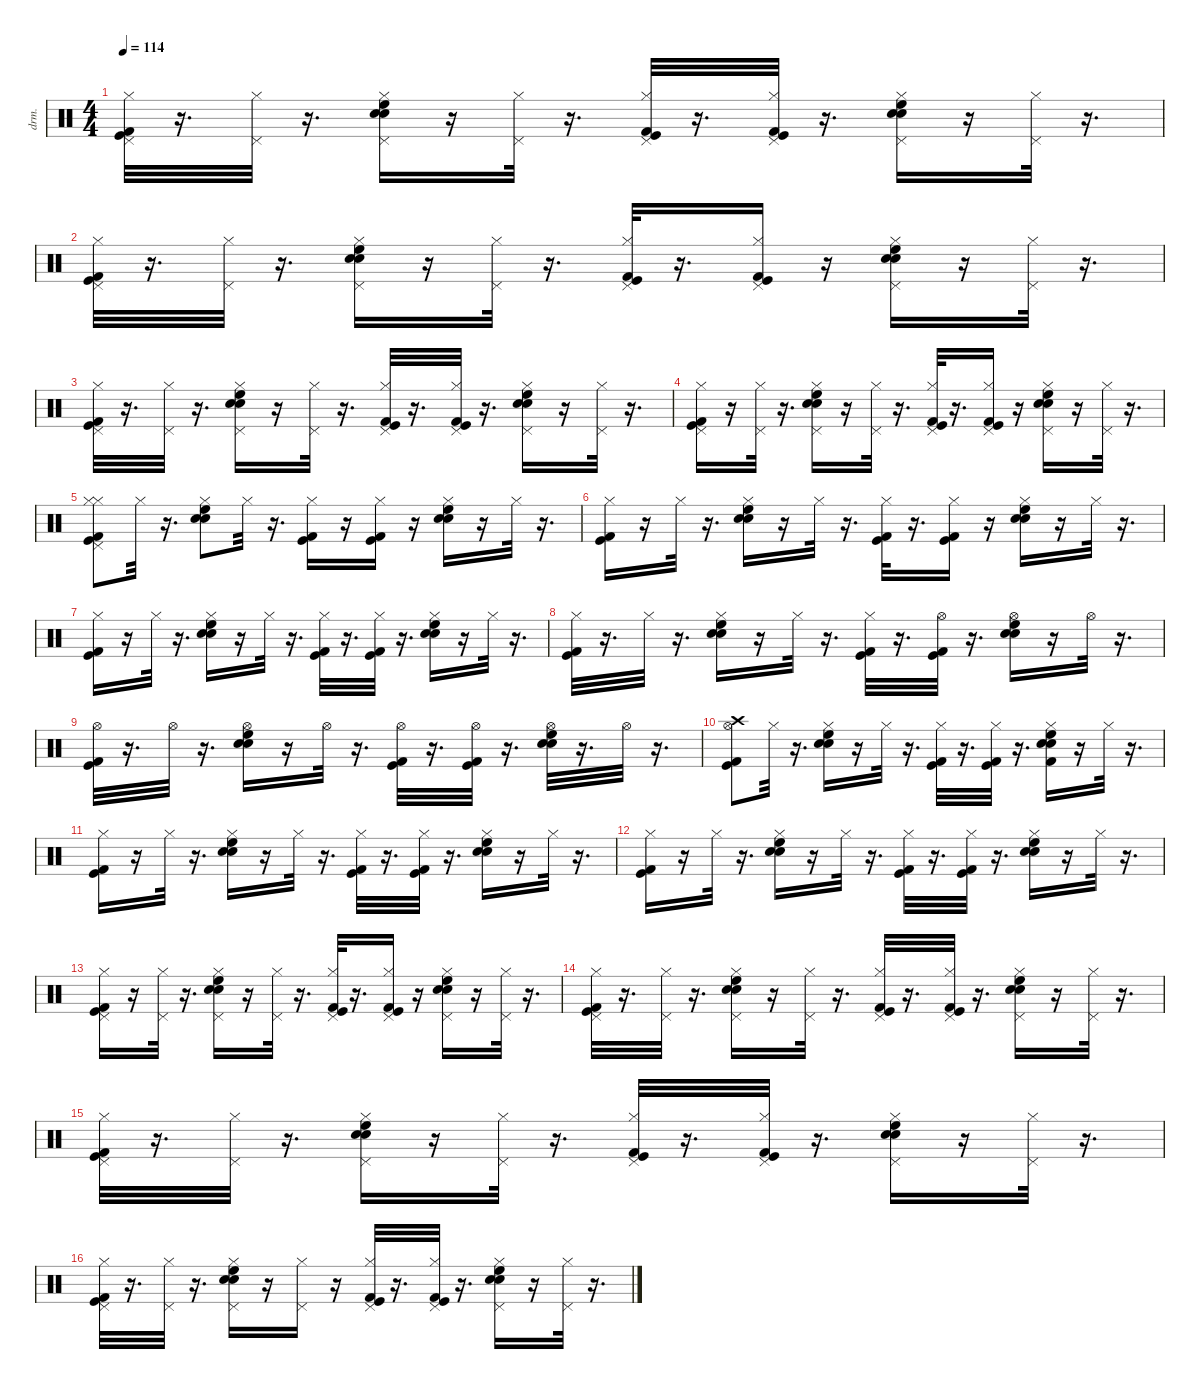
\defaultSystemsLayout 4
\hideDynamics
\bracketExtendMode nobrackets
\otherSystemsTrackNameOrientation horizontal
\track ("Drums" "drm.") {instrument percussion}
\staff {score}
\articulation defaults
\ts (4 4)
\tempo 114
\clef neutral
\ks c
("Kick (hit)" "Kick (hit) 2" "Hi-Hat (closed)" "Pedal Hi-Hat (hit)").32{dy fff} r.16{d} ("Hi-Hat (closed)" "Pedal Hi-Hat (hit)").32{dy ff} r.16{d} ("Snare (hit) 2" "High Floor Tom (hit)" "Hi-Hat (closed)" "Pedal Hi-Hat (hit)" "Snare (hit) 2").16{dy fff} r.16 ("Pedal Hi-Hat (hit)" "Hi-Hat (closed)").32{dy f} r.16{d} ("Kick (hit)" "Pedal Hi-Hat (hit)" "Kick (hit) 2" "Hi-Hat (closed)").32{dy fff} r.16{d} ("Kick (hit) 2" "Hi-Hat (closed)" "Pedal Hi-Hat (hit)" "Kick (hit)").32 r.16{d} ("Snare (hit) 2" "Snare (hit) 2" "Hi-Hat (closed)" "Pedal Hi-Hat (hit)" "High Floor Tom (hit)").16 r.16 ("Hi-Hat (closed)" "Pedal Hi-Hat (hit)").32{dy f} r.16{d} |
("Hi-Hat (closed)" "Pedal Hi-Hat (hit)" "Kick (hit)" "Kick (hit) 2").32{dy ff} r.16{d} ("Hi-Hat (closed)" "Pedal Hi-Hat (hit)").32{dy f} r.16{d} ("Snare (hit) 2" "Hi-Hat (closed)" "Pedal Hi-Hat (hit)" "Snare (hit) 2" "High Floor Tom (hit)").16{dy fff} r.16 ("Pedal Hi-Hat (hit)" "Hi-Hat (closed)").32{dy f} r.16{d} ("Kick (hit) 2" "Pedal Hi-Hat (hit)" "Hi-Hat (closed)" "Kick (hit)").32{dy fff} r.16{d} ("Kick (hit) 2" "Pedal Hi-Hat (hit)" "Hi-Hat (closed)" "Kick (hit)").16 r.16 ("Snare (hit) 2" "High Floor Tom (hit)" "Pedal Hi-Hat (hit)" "Hi-Hat (closed)" "Snare (hit) 2").16 r.16 ("Pedal Hi-Hat (hit)" "Hi-Hat (closed)").32{dy ff} r.16{d} |
("Kick (hit) 2" "Pedal Hi-Hat (hit)" "Hi-Hat (closed)" "Kick (hit)").32{dy fff} r.16{d} ("Hi-Hat (closed)" "Pedal Hi-Hat (hit)").32{dy f} r.16{d} ("Snare (hit) 2" "Snare (hit) 2" "High Floor Tom (hit)" "Pedal Hi-Hat (hit)" "Hi-Hat (closed)").16{dy fff} r.16 ("Pedal Hi-Hat (hit)" "Hi-Hat (closed)").32{dy ff} r.16{d} ("Pedal Hi-Hat (hit)" "Hi-Hat (closed)" "Kick (hit) 2" "Kick (hit)").32 r.16{d} ("Kick (hit) 2" "Hi-Hat (closed)" "Pedal Hi-Hat (hit)" "Kick (hit)").32{dy fff} r.16{d} ("Snare (hit) 2" "High Floor Tom (hit)" "Hi-Hat (closed)" "Pedal Hi-Hat (hit)" "Snare (hit) 2").16 r.16 ("Pedal Hi-Hat (hit)" "Hi-Hat (closed)").32{dy ff} r.16{d} |
("Kick (hit) 2" "Kick (hit)" "Hi-Hat (closed)" "Pedal Hi-Hat (hit)").16{dy fff} r.16 ("Pedal Hi-Hat (hit)" "Hi-Hat (closed)").32{dy ff} r.16{d} ("Snare (hit) 2" "Hi-Hat (closed)" "Pedal Hi-Hat (hit)" "Snare (hit) 2" "High Floor Tom (hit)").16{dy fff} r.16 ("Pedal Hi-Hat (hit)" "Hi-Hat (closed)").32{dy ff} r.16{d} ("Pedal Hi-Hat (hit)" "Hi-Hat (closed)" "Kick (hit) 2" "Kick (hit)").32 r.16{d} ("Pedal Hi-Hat (hit)" "Kick (hit) 2" "Hi-Hat (closed)" "Kick (hit)").16 r.16 ("Snare (hit) 2" "Hi-Hat (closed)" "Snare (hit) 2" "Pedal Hi-Hat (hit)" "High Floor Tom (hit)").16{dy fff} r.16 ("Pedal Hi-Hat (hit)" "Hi-Hat (closed)").32{dy ff} r.16{d} |
("Hi-Hat (closed)" "Kick (hit)" "Kick (hit) 2" "Pedal Hi-Hat (hit)" "Hi-Hat (closed)").8 "Hi-Hat (closed)".32 r.16{d} ("Snare (hit) 2" "High Floor Tom (hit)" "Snare (hit) 2" "Hi-Hat (closed)").8{dy fff} "Hi-Hat (closed)".32{dy ff} r.16{d} ("Kick (hit) 2" "Kick (hit)" "Hi-Hat (closed)").16{dy fff} r.16 ("Kick (hit)" "Kick (hit) 2" "Hi-Hat (closed)").16 r.16 ("Snare (hit) 2" "Hi-Hat (closed)" "Snare (hit) 2" "High Floor Tom (hit)").16 r.16 "Hi-Hat (closed)".32{dy ff} r.16{d} |
("Kick (hit)" "Kick (hit) 2" "Hi-Hat (closed)").16{dy fff} r.16 "Hi-Hat (closed)".32{dy ff} r.16{d} ("Snare (hit) 2" "Hi-Hat (closed)" "High Floor Tom (hit)" "Snare (hit) 2").16{dy fff} r.16 "Hi-Hat (closed)".32{dy ff} r.16{d} ("Hi-Hat (closed)" "Kick (hit) 2" "Kick (hit)").32 r.16{d} ("Hi-Hat (closed)" "Kick (hit) 2" "Kick (hit)").16 r.16 ("High Floor Tom (hit)" "Snare (hit) 2" "Snare (hit) 2" "Hi-Hat (closed)").16{dy fff} r.16 "Hi-Hat (closed)".32{dy ff} r.16{d} |
("Kick (hit) 2" "Kick (hit)" "Hi-Hat (closed)").16{dy fff} r.16 "Hi-Hat (closed)".32{dy ff} r.16{d} ("Snare (hit) 2" "High Floor Tom (hit)" "Hi-Hat (closed)" "Snare (hit) 2").16{dy fff} r.16 "Hi-Hat (closed)".32{dy ff} r.16{d} ("Kick (hit) 2" "Hi-Hat (closed)" "Kick (hit)").32{dy fff} r.16{d} ("Kick (hit) 2" "Hi-Hat (closed)" "Kick (hit)").32 r.16{d} ("High Floor Tom (hit)" "Snare (hit) 2" "Snare (hit) 2" "Hi-Hat (closed)").16 r.16 "Hi-Hat (closed)".32{dy ff} r.16{d} |
("Kick (hit)" "Kick (hit) 2" "Hi-Hat (closed)").32{dy fff} r.16{d} "Hi-Hat (closed)".32 r.16{d} ("Hi-Hat (closed)" "Snare (hit) 2" "Snare (hit) 2" "High Floor Tom (hit)").16{dy ff} r.16 "Hi-Hat (closed)".32{dy fff} r.16{d} ("Hi-Hat (closed)" "Kick (hit) 2" "Kick (hit)").32{dy ff} r.16{d} ("Hi-Hat (open)" "Kick (hit)" "Kick (hit) 2").32{dy f} r.16{d} ("High Floor Tom (hit)" "Hi-Hat (open)" "Snare (hit) 2" "Snare (hit) 2").16{dy fff} r.16 "Hi-Hat (open)".32{dy ff} r.16{d} |
("Kick (hit)" "Hi-Hat (open)" "Kick (hit) 2").32{dy fff} r.16{d} "Hi-Hat (open)".32{dy f} r.16{d} ("Snare (hit) 2" "High Floor Tom (hit)" "Snare (hit) 2" "Hi-Hat (open)").16{dy fff} r.16 "Hi-Hat (open)".32{dy ff} r.16{d} ("Kick (hit) 2" "Hi-Hat (open)" "Kick (hit)").32{dy fff} r.16{d} ("Hi-Hat (open)" "Kick (hit) 2" "Kick (hit)").32{dy ff} r.16{d} ("High Floor Tom (hit)" "Snare (hit) 2" "Snare (hit) 2" "Hi-Hat (open)").32{dy fff} r.16{d} "Hi-Hat (open)".32{dy ff} r.16{d} |
("Kick (hit) 2" "Kick (hit)" "Crash high (hit)" "Hi-Hat (open)").8{dy fff} "Hi-Hat (closed)".32{dy ff} r.16{d} ("Snare (hit) 2" "Hi-Hat (closed)" "Snare (hit) 2" "High Floor Tom (hit)").16{dy fff} r.16 "Hi-Hat (closed)".32{dy ff} r.16{d} ("Kick (hit) 2" "Hi-Hat (closed)" "Kick (hit)").32{dy fff} r.16{d} ("Kick (hit) 2" "Hi-Hat (closed)" "Kick (hit)").32 r.16{d} ("Kick (hit) 2" "Snare (hit) 2" "Snare (hit) 2" "High Floor Tom (hit)" "Hi-Hat (closed)").16{dy f} r.16 "Hi-Hat (closed)".32{dy ff} r.16{d} |
("Kick (hit)" "Kick (hit) 2" "Hi-Hat (closed)").16{dy fff} r.16 "Hi-Hat (closed)".32{dy ff} r.16{d} ("Snare (hit) 2" "High Floor Tom (hit)" "Hi-Hat (closed)" "Snare (hit) 2").16{dy fff} r.16 "Hi-Hat (closed)".32{dy ff} r.16{d} ("Kick (hit) 2" "Kick (hit)" "Hi-Hat (closed)").32{dy fff} r.16{d} ("Kick (hit) 2" "Kick (hit)" "Hi-Hat (closed)").32 r.16{d} ("Snare (hit) 2" "Snare (hit) 2" "High Floor Tom (hit)" "Hi-Hat (closed)").16 r.16 "Hi-Hat (closed)".32{dy ff} r.16{d} |
("Hi-Hat (closed)" "Kick (hit)" "Kick (hit) 2").16 r.16 "Hi-Hat (closed)".32 r.16{d} ("Snare (hit) 2" "Snare (hit) 2" "Hi-Hat (closed)" "High Floor Tom (hit)").16{dy fff} r.16 "Hi-Hat (closed)".32{dy ff} r.16{d} ("Kick (hit) 2" "Hi-Hat (closed)" "Kick (hit)").32{dy fff} r.16{d} ("Kick (hit) 2" "Hi-Hat (closed)" "Kick (hit)").32 r.16{d} ("High Floor Tom (hit)" "Snare (hit) 2" "Snare (hit) 2" "Hi-Hat (closed)").16 r.16 "Hi-Hat (closed)".32{dy ff} r.16{d} |
("Kick (hit)" "Kick (hit) 2" "Pedal Hi-Hat (hit)" "Hi-Hat (closed)").16{dy fff} r.16 ("Pedal Hi-Hat (hit)" "Hi-Hat (closed)").32{dy ff} r.16{d} ("Snare (hit) 2" "Pedal Hi-Hat (hit)" "Hi-Hat (closed)" "High Floor Tom (hit)" "Snare (hit) 2").16{dy fff} r.16 ("Pedal Hi-Hat (hit)" "Hi-Hat (closed)").32{dy ff} r.16{d} ("Kick (hit)" "Kick (hit) 2" "Pedal Hi-Hat (hit)" "Hi-Hat (closed)").32{dy fff} r.16{d} ("Kick (hit) 2" "Kick (hit)" "Pedal Hi-Hat (hit)" "Hi-Hat (closed)").16 r.16 ("Snare (hit) 2" "Snare (hit) 2" "High Floor Tom (hit)" "Pedal Hi-Hat (hit)" "Hi-Hat (closed)").16 r.16 ("Pedal Hi-Hat (hit)" "Hi-Hat (closed)").32{dy ff} r.16{d} |
("Kick (hit)" "Pedal Hi-Hat (hit)" "Hi-Hat (closed)" "Kick (hit) 2").32{dy fff} r.16{d} ("Pedal Hi-Hat (hit)" "Hi-Hat (closed)").32{dy f} r.16{d} ("High Floor Tom (hit)" "Snare (hit) 2" "Pedal Hi-Hat (hit)" "Snare (hit) 2" "Hi-Hat (closed)").16{dy fff} r.16 ("Pedal Hi-Hat (hit)" "Hi-Hat (closed)").32{dy f} r.16{d} ("Kick (hit) 2" "Kick (hit)" "Pedal Hi-Hat (hit)" "Hi-Hat (closed)").32{dy fff} r.16{d} ("Kick (hit) 2" "Kick (hit)" "Pedal Hi-Hat (hit)" "Hi-Hat (closed)").32 r.16{d} ("Snare (hit) 2" "High Floor Tom (hit)" "Snare (hit) 2" "Pedal Hi-Hat (hit)" "Hi-Hat (closed)").16 r.16 ("Pedal Hi-Hat (hit)" "Hi-Hat (closed)").32{dy ff} r.16{d} |
("Kick (hit) 2" "Kick (hit)" "Pedal Hi-Hat (hit)" "Hi-Hat (closed)").32{dy fff} r.16{d} ("Pedal Hi-Hat (hit)" "Hi-Hat (closed)").32{dy ff} r.16{d} ("Snare (hit) 2" "Snare (hit) 2" "Pedal Hi-Hat (hit)" "Hi-Hat (closed)" "High Floor Tom (hit)").16{dy fff} r.16 ("Pedal Hi-Hat (hit)" "Hi-Hat (closed)").32{dy f} r.16{d} ("Kick (hit) 2" "Pedal Hi-Hat (hit)" "Hi-Hat (closed)" "Kick (hit)").32{dy fff} r.16{d} ("Pedal Hi-Hat (hit)" "Hi-Hat (closed)" "Kick (hit) 2" "Kick (hit)").32{dy ff} r.16{d} ("Snare (hit) 2" "High Floor Tom (hit)" "Snare (hit) 2" "Pedal Hi-Hat (hit)" "Hi-Hat (closed)").16{dy fff} r.16 ("Pedal Hi-Hat (hit)" "Hi-Hat (closed)").32{dy f} r.16{d} |
("Kick (hit) 2" "Kick (hit)" "Pedal Hi-Hat (hit)" "Hi-Hat (closed)").32{dy fff} r.16{d} ("Pedal Hi-Hat (hit)" "Hi-Hat (closed)").32{dy f} r.16{d} ("Snare (hit) 2" "Snare (hit) 2" "Pedal Hi-Hat (hit)" "High Floor Tom (hit)" "Hi-Hat (closed)").16{dy fff} r.16 ("Pedal Hi-Hat (hit)" "Hi-Hat (closed)").16{dy f} r.16 ("Kick (hit) 2" "Pedal Hi-Hat (hit)" "Hi-Hat (closed)" "Kick (hit)").32{dy fff} r.16{d} ("Kick (hit) 2" "Pedal Hi-Hat (hit)" "Hi-Hat (closed)" "Kick (hit)").32 r.16{d} ("Snare (hit) 2" "Snare (hit) 2" "Pedal Hi-Hat (hit)" "Hi-Hat (closed)" "High Floor Tom (hit)").16 r.16 ("Pedal Hi-Hat (hit)" "Hi-Hat (closed)").32{dy f} r.16{d}
